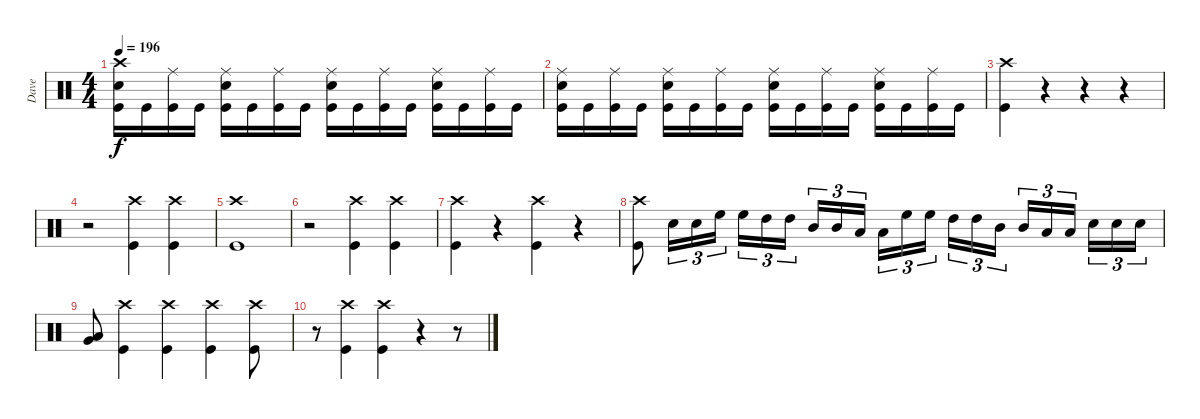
\track ("Dave" "Dave") {instrument percussion}
\staff {score}
\articulation defaults
\ts (4 4)
\tempo 196
\clef neutral
\ks c
("Crash high (hit)" "Snare (hit) 2" "Kick (hit)").16{dy f} "Kick (hit)".16 ("Ride (middle)" "Kick (hit)").16 "Kick (hit)".16 ("Ride (middle)" "Snare (hit) 2" "Kick (hit)").16 "Kick (hit)".16 ("Ride (middle)" "Kick (hit)").16 "Kick (hit)".16 ("Ride (middle)" "Snare (hit) 2" "Kick (hit)").16 "Kick (hit)".16 ("Ride (middle)" "Kick (hit)").16 "Kick (hit)".16 ("Ride (middle)" "Snare (hit) 2" "Kick (hit)").16 "Kick (hit)".16 ("Ride (middle)" "Kick (hit)").16 "Kick (hit)".16 |
("Ride (middle)" "Snare (hit) 2" "Kick (hit)").16 "Kick (hit)".16 ("Ride (middle)" "Kick (hit)").16 "Kick (hit)".16 ("Ride (middle)" "Snare (hit) 2" "Kick (hit)").16 "Kick (hit)".16 ("Ride (middle)" "Kick (hit)").16 "Kick (hit)".16 ("Ride (middle)" "Snare (hit) 2" "Kick (hit)").16 "Kick (hit)".16 ("Ride (middle)" "Kick (hit)").16 "Kick (hit)".16 ("Ride (middle)" "Snare (hit) 2" "Kick (hit)").16 "Kick (hit)".16 ("Ride (middle)" "Kick (hit)").16 "Kick (hit)".16 |
("Crash high (hit)" "Kick (hit)").4 r.4 r.4 r.4 |
r.2 ("Crash high (hit)" "Kick (hit)").4 ("Crash high (hit)" "Kick (hit)").4 |
("Crash high (hit)" "Kick (hit)").1 |
r.2 ("Crash high (hit)" "Kick (hit)").4 ("Crash high (hit)" "Kick (hit)").4 |
("Crash high (hit)" "Kick (hit)").4 r.4 ("Crash high (hit)" "Kick (hit)").4 r.4 |
("Crash high (hit)" "Kick (hit)").8 "Snare (hit) 2".16{tu (3 2)} "Snare (hit) 2".16{tu (3 2)} "High Floor Tom (hit)".16{tu (3 2)} "High Floor Tom (hit)".16{tu (3 2)} "High Tom (hit)".16{tu (3 2)} "High Tom (hit)".16{tu (3 2)} "Mid Tom (hit)".16{tu (3 2)} "Mid Tom (hit)".16{tu (3 2)} "Low Tom (hit)".16{tu (3 2)} "Low Tom (hit)".16{tu (3 2)} "High Floor Tom (hit)".16{tu (3 2)} "High Floor Tom (hit)".16{tu (3 2)} "High Tom (hit)".16{tu (3 2)} "High Tom (hit)".16{tu (3 2)} "Mid Tom (hit)".16{tu (3 2)} "Mid Tom (hit)".16{tu (3 2)} "Low Tom (hit)".16{tu (3 2)} "Low Tom (hit)".16{tu (3 2)} "Snare (hit) 2".16{tu (3 2)} "Snare (hit) 2".16{tu (3 2)} "Snare (hit) 2".16{tu (3 2)} |
("Low Floor Tom (hit)" "Very Low Tom (hit)").8 ("Crash high (hit)" "Kick (hit)").4 ("Crash high (hit)" "Kick (hit)").4 ("Crash high (hit)" "Kick (hit)").4 ("Crash high (hit)" "Kick (hit)").8 |
r.8 ("Crash high (hit)" "Kick (hit)").4 ("Crash high (hit)" "Kick (hit)").4 r.4 r.8
